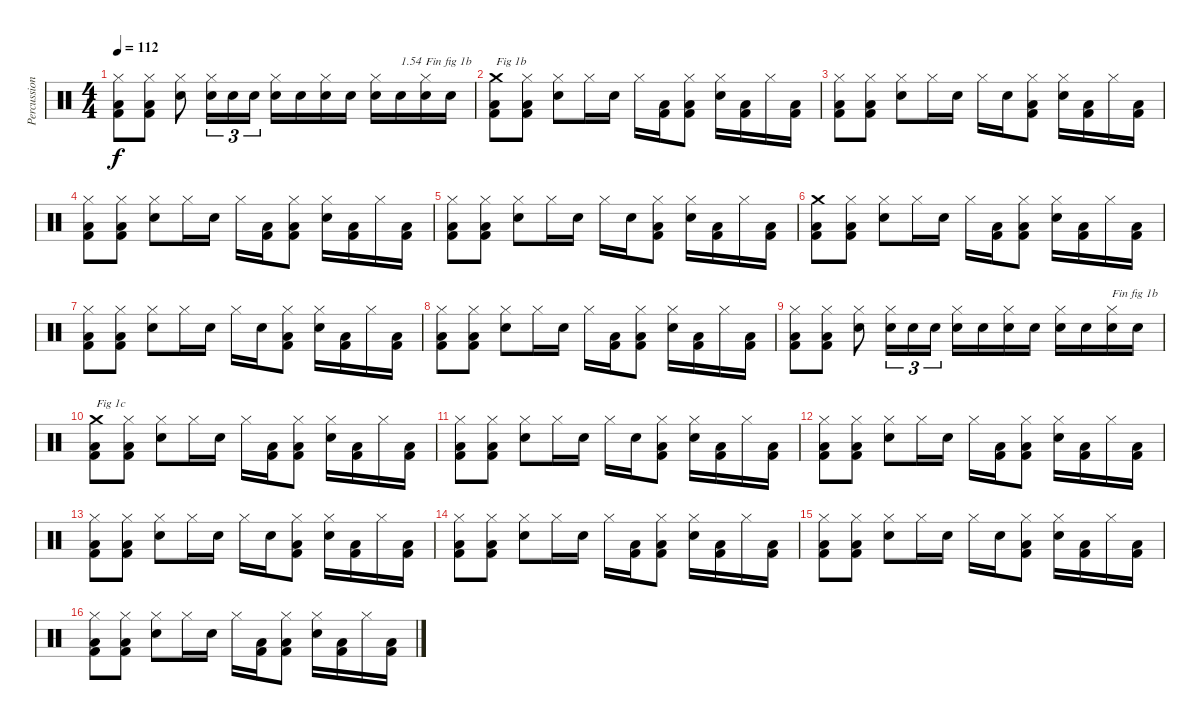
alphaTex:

\track ("Percussions" "Percussion") {instrument percussion}
\staff {score}
\articulation defaults
\ts (4 4)
\tempo 112
\clef neutral
\ks c
("Kick (hit) 2" "Low Floor Tom (hit)" "Hi-Hat (closed)").8{dy f} ("Kick (hit) 2" "Low Floor Tom (hit)" "Hi-Hat (closed)").8 ("Snare (hit) 2" "Hi-Hat (closed)").8 ("Snare (hit) 2" "Hi-Hat (closed)").16{tu (3 2)} "Snare (hit) 2".16{tu (3 2)} "Snare (hit) 2".16{tu (3 2)} ("Snare (hit) 2" "Hi-Hat (closed)").16 "Snare (hit) 2".16 ("Snare (hit) 2" "Hi-Hat (closed)").16 "Snare (hit) 2".16 ("Snare (hit) 2" "Hi-Hat (closed)").16 "Snare (hit) 2".16{txt "1.54"} ("Snare (hit) 2" "Hi-Hat (closed)").16{txt "Fin fig 1b"} "Snare (hit) 2".16 |
("Kick (hit) 2" "Low Floor Tom (hit)" "Crash medium (hit)").8{txt "Fig 1b"} ("Kick (hit) 2" "Low Floor Tom (hit)" "Hi-Hat (closed)").8 ("Snare (hit) 2" "Hi-Hat (closed)").8 "Hi-Hat (closed)".16 "Snare (hit) 2".16 "Hi-Hat (closed)".16 ("Kick (hit) 2" "Low Floor Tom (hit)").16 ("Kick (hit) 2" "Low Floor Tom (hit)" "Hi-Hat (closed)").8 ("Snare (hit) 2" "Hi-Hat (closed)").16 ("Kick (hit) 2" "Low Floor Tom (hit)").16 "Hi-Hat (closed)".16 ("Kick (hit) 2" "Low Floor Tom (hit)").16 |
("Kick (hit) 2" "Low Floor Tom (hit)" "Hi-Hat (closed)").8 ("Kick (hit) 2" "Low Floor Tom (hit)" "Hi-Hat (closed)").8 ("Snare (hit) 2" "Hi-Hat (closed)").8 "Hi-Hat (closed)".16 "Snare (hit) 2".16 "Hi-Hat (closed)".16 "Snare (hit) 2".16 ("Kick (hit) 2" "Low Floor Tom (hit)" "Hi-Hat (closed)").8 ("Snare (hit) 2" "Hi-Hat (closed)").16 ("Kick (hit) 2" "Low Floor Tom (hit)").16 "Hi-Hat (closed)".16 ("Kick (hit) 2" "Low Floor Tom (hit)").16 |
("Kick (hit) 2" "Low Floor Tom (hit)" "Hi-Hat (closed)").8 ("Kick (hit) 2" "Low Floor Tom (hit)" "Hi-Hat (closed)").8 ("Snare (hit) 2" "Hi-Hat (closed)").8 "Hi-Hat (closed)".16 "Snare (hit) 2".16 "Hi-Hat (closed)".16 ("Kick (hit) 2" "Low Floor Tom (hit)").16 ("Kick (hit) 2" "Low Floor Tom (hit)" "Hi-Hat (closed)").8 ("Snare (hit) 2" "Hi-Hat (closed)").16 ("Kick (hit) 2" "Low Floor Tom (hit)").16 "Hi-Hat (closed)".16 ("Kick (hit) 2" "Low Floor Tom (hit)").16 |
("Kick (hit) 2" "Low Floor Tom (hit)" "Hi-Hat (closed)").8 ("Kick (hit) 2" "Low Floor Tom (hit)" "Hi-Hat (closed)").8 ("Snare (hit) 2" "Hi-Hat (closed)").8 "Hi-Hat (closed)".16 "Snare (hit) 2".16 "Hi-Hat (closed)".16 "Snare (hit) 2".16 ("Kick (hit) 2" "Low Floor Tom (hit)" "Hi-Hat (closed)").8 ("Snare (hit) 2" "Hi-Hat (closed)").16 ("Kick (hit) 2" "Low Floor Tom (hit)").16 "Hi-Hat (closed)".16 ("Kick (hit) 2" "Low Floor Tom (hit)").16 |
("Kick (hit) 2" "Low Floor Tom (hit)" "Crash medium (hit)").8 ("Kick (hit) 2" "Low Floor Tom (hit)" "Hi-Hat (closed)").8 ("Snare (hit) 2" "Hi-Hat (closed)").8 "Hi-Hat (closed)".16 "Snare (hit) 2".16 "Hi-Hat (closed)".16 ("Kick (hit) 2" "Low Floor Tom (hit)").16 ("Kick (hit) 2" "Low Floor Tom (hit)" "Hi-Hat (closed)").8 ("Snare (hit) 2" "Hi-Hat (closed)").16 ("Kick (hit) 2" "Low Floor Tom (hit)").16 "Hi-Hat (closed)".16 ("Kick (hit) 2" "Low Floor Tom (hit)").16 |
("Kick (hit) 2" "Low Floor Tom (hit)" "Hi-Hat (closed)").8 ("Kick (hit) 2" "Low Floor Tom (hit)" "Hi-Hat (closed)").8 ("Snare (hit) 2" "Hi-Hat (closed)").8 "Hi-Hat (closed)".16 "Snare (hit) 2".16 "Hi-Hat (closed)".16 "Snare (hit) 2".16 ("Kick (hit) 2" "Low Floor Tom (hit)" "Hi-Hat (closed)").8 ("Snare (hit) 2" "Hi-Hat (closed)").16 ("Kick (hit) 2" "Low Floor Tom (hit)").16 "Hi-Hat (closed)".16 ("Kick (hit) 2" "Low Floor Tom (hit)").16 |
("Kick (hit) 2" "Low Floor Tom (hit)" "Hi-Hat (closed)").8 ("Kick (hit) 2" "Low Floor Tom (hit)" "Hi-Hat (closed)").8 ("Snare (hit) 2" "Hi-Hat (closed)").8 "Hi-Hat (closed)".16 "Snare (hit) 2".16 "Hi-Hat (closed)".16 ("Kick (hit) 2" "Low Floor Tom (hit)").16 ("Kick (hit) 2" "Low Floor Tom (hit)" "Hi-Hat (closed)").8 ("Snare (hit) 2" "Hi-Hat (closed)").16 ("Kick (hit) 2" "Low Floor Tom (hit)").16 "Hi-Hat (closed)".16 ("Kick (hit) 2" "Low Floor Tom (hit)").16 |
("Kick (hit) 2" "Low Floor Tom (hit)" "Hi-Hat (closed)").8 ("Kick (hit) 2" "Low Floor Tom (hit)" "Hi-Hat (closed)").8 ("Snare (hit) 2" "Hi-Hat (closed)").8 ("Snare (hit) 2" "Hi-Hat (closed)").16{tu (3 2)} "Snare (hit) 2".16{tu (3 2)} "Snare (hit) 2".16{tu (3 2)} ("Snare (hit) 2" "Hi-Hat (closed)").16 "Snare (hit) 2".16 ("Snare (hit) 2" "Hi-Hat (closed)").16 "Snare (hit) 2".16 ("Snare (hit) 2" "Hi-Hat (closed)").16 "Snare (hit) 2".16 ("Snare (hit) 2" "Hi-Hat (closed)").16{txt "Fin fig 1b"} "Snare (hit) 2".16 |
("Kick (hit) 2" "Low Floor Tom (hit)" "Crash medium (hit)").8{txt "Fig 1c"} ("Kick (hit) 2" "Low Floor Tom (hit)" "Hi-Hat (closed)").8 ("Snare (hit) 2" "Hi-Hat (closed)").8 "Hi-Hat (closed)".16 "Snare (hit) 2".16 "Hi-Hat (closed)".16 ("Kick (hit) 2" "Low Floor Tom (hit)").16 ("Kick (hit) 2" "Low Floor Tom (hit)" "Hi-Hat (closed)").8 ("Snare (hit) 2" "Hi-Hat (closed)").16 ("Kick (hit) 2" "Low Floor Tom (hit)").16 "Hi-Hat (closed)".16 ("Kick (hit) 2" "Low Floor Tom (hit)").16 |
("Kick (hit) 2" "Low Floor Tom (hit)" "Hi-Hat (closed)").8 ("Kick (hit) 2" "Low Floor Tom (hit)" "Hi-Hat (closed)").8 ("Snare (hit) 2" "Hi-Hat (closed)").8 "Hi-Hat (closed)".16 "Snare (hit) 2".16 "Hi-Hat (closed)".16 "Snare (hit) 2".16 ("Kick (hit) 2" "Low Floor Tom (hit)" "Hi-Hat (closed)").8 ("Snare (hit) 2" "Hi-Hat (closed)").16 ("Kick (hit) 2" "Low Floor Tom (hit)").16 "Hi-Hat (closed)".16 ("Kick (hit) 2" "Low Floor Tom (hit)").16 |
("Kick (hit) 2" "Low Floor Tom (hit)" "Hi-Hat (closed)").8 ("Kick (hit) 2" "Low Floor Tom (hit)" "Hi-Hat (closed)").8 ("Snare (hit) 2" "Hi-Hat (closed)").8 "Hi-Hat (closed)".16 "Snare (hit) 2".16 "Hi-Hat (closed)".16 ("Kick (hit) 2" "Low Floor Tom (hit)").16 ("Kick (hit) 2" "Low Floor Tom (hit)" "Hi-Hat (closed)").8 ("Snare (hit) 2" "Hi-Hat (closed)").16 ("Kick (hit) 2" "Low Floor Tom (hit)").16 "Hi-Hat (closed)".16 ("Kick (hit) 2" "Low Floor Tom (hit)").16 |
("Kick (hit) 2" "Low Floor Tom (hit)" "Hi-Hat (closed)").8 ("Kick (hit) 2" "Low Floor Tom (hit)" "Hi-Hat (closed)").8 ("Snare (hit) 2" "Hi-Hat (closed)").8 "Hi-Hat (closed)".16 "Snare (hit) 2".16 "Hi-Hat (closed)".16 "Snare (hit) 2".16 ("Kick (hit) 2" "Low Floor Tom (hit)" "Hi-Hat (closed)").8 ("Snare (hit) 2" "Hi-Hat (closed)").16 ("Kick (hit) 2" "Low Floor Tom (hit)").16 "Hi-Hat (closed)".16 ("Kick (hit) 2" "Low Floor Tom (hit)").16 |
("Kick (hit) 2" "Low Floor Tom (hit)" "Hi-Hat (closed)").8 ("Kick (hit) 2" "Low Floor Tom (hit)" "Hi-Hat (closed)").8 ("Snare (hit) 2" "Hi-Hat (closed)").8 "Hi-Hat (closed)".16 "Snare (hit) 2".16 "Hi-Hat (closed)".16 ("Kick (hit) 2" "Low Floor Tom (hit)").16 ("Kick (hit) 2" "Low Floor Tom (hit)" "Hi-Hat (closed)").8 ("Snare (hit) 2" "Hi-Hat (closed)").16 ("Kick (hit) 2" "Low Floor Tom (hit)").16 "Hi-Hat (closed)".16 ("Kick (hit) 2" "Low Floor Tom (hit)").16 |
("Kick (hit) 2" "Low Floor Tom (hit)" "Hi-Hat (closed)").8 ("Kick (hit) 2" "Low Floor Tom (hit)" "Hi-Hat (closed)").8 ("Snare (hit) 2" "Hi-Hat (closed)").8 "Hi-Hat (closed)".16 "Snare (hit) 2".16 "Hi-Hat (closed)".16 "Snare (hit) 2".16 ("Kick (hit) 2" "Low Floor Tom (hit)" "Hi-Hat (closed)").8 ("Snare (hit) 2" "Hi-Hat (closed)").16 ("Kick (hit) 2" "Low Floor Tom (hit)").16 "Hi-Hat (closed)".16 ("Kick (hit) 2" "Low Floor Tom (hit)").16 |
("Kick (hit) 2" "Low Floor Tom (hit)" "Hi-Hat (closed)").8 ("Kick (hit) 2" "Low Floor Tom (hit)" "Hi-Hat (closed)").8 ("Snare (hit) 2" "Hi-Hat (closed)").8 "Hi-Hat (closed)".16 "Snare (hit) 2".16 "Hi-Hat (closed)".16 ("Kick (hit) 2" "Low Floor Tom (hit)").16 ("Kick (hit) 2" "Low Floor Tom (hit)" "Hi-Hat (closed)").8 ("Snare (hit) 2" "Hi-Hat (closed)").16 ("Kick (hit) 2" "Low Floor Tom (hit)").16 "Hi-Hat (closed)".16 ("Kick (hit) 2" "Low Floor Tom (hit)").16
